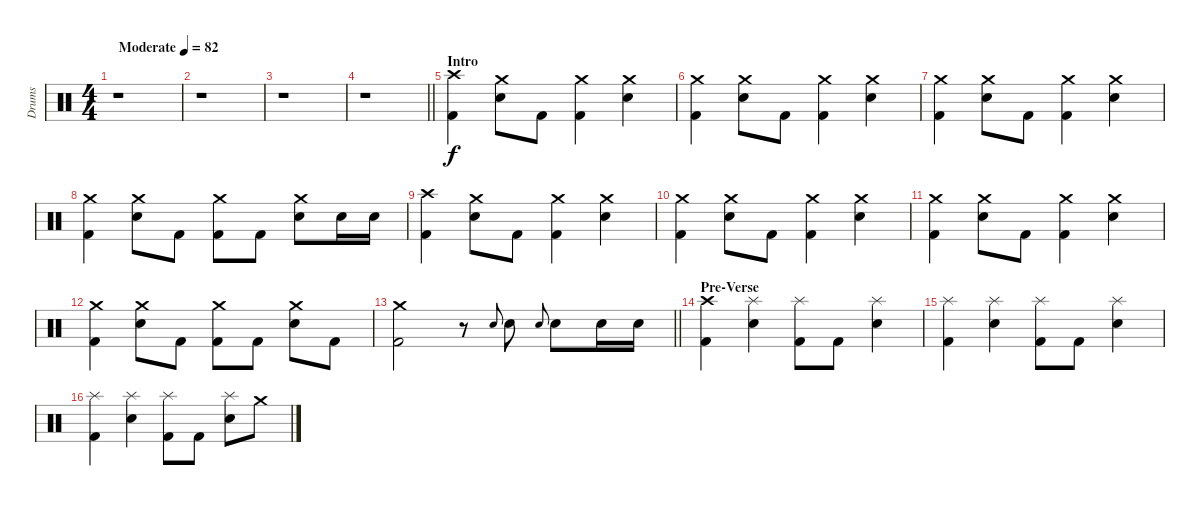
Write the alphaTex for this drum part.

\track ("Drums" "Drums") {instrument percussion}
\staff {score}
\articulation defaults
\ts (4 4)
\tempo (82 "Moderate")
\clef neutral
\ks c
r.1{dy f} |
r.1 |
r.1 |
\barLineRight lightlight
r.1 |
\section ("" "Intro")
("Crash high (hit)" "Kick (hit) 2").4 ("Crash medium (hit)" "Snare (hit) 2").8 "Kick (hit) 2".8 ("Crash medium (hit)" "Kick (hit) 2").4 ("Crash medium (hit)" "Snare (hit) 2").4 |
("Crash medium (hit)" "Kick (hit) 2").4 ("Crash medium (hit)" "Snare (hit) 2").8 "Kick (hit) 2".8 ("Crash medium (hit)" "Kick (hit) 2").4 ("Crash medium (hit)" "Snare (hit) 2").4 |
("Crash medium (hit)" "Kick (hit) 2").4 ("Crash medium (hit)" "Snare (hit) 2").8 "Kick (hit) 2".8 ("Crash medium (hit)" "Kick (hit) 2").4 ("Crash medium (hit)" "Snare (hit) 2").4 |
("Crash medium (hit)" "Kick (hit) 2").4 ("Crash medium (hit)" "Snare (hit) 2").8 "Kick (hit) 2".8 ("Crash medium (hit)" "Kick (hit) 2").8 "Kick (hit) 2".8 ("Crash medium (hit)" "Snare (hit) 2").8 "Snare (hit) 2".16 "Snare (hit) 2".16 |
("Crash high (hit)" "Kick (hit) 2").4 ("Crash medium (hit)" "Snare (hit) 2").8 "Kick (hit) 2".8 ("Crash medium (hit)" "Kick (hit) 2").4 ("Crash medium (hit)" "Snare (hit) 2").4 |
("Crash medium (hit)" "Kick (hit) 2").4 ("Crash medium (hit)" "Snare (hit) 2").8 "Kick (hit) 2".8 ("Crash medium (hit)" "Kick (hit) 2").4 ("Crash medium (hit)" "Snare (hit) 2").4 |
("Crash medium (hit)" "Kick (hit) 2").4 ("Crash medium (hit)" "Snare (hit) 2").8 "Kick (hit) 2".8 ("Crash medium (hit)" "Kick (hit) 2").4 ("Crash medium (hit)" "Snare (hit) 2").4 |
("Crash medium (hit)" "Kick (hit) 2").4 ("Crash medium (hit)" "Snare (hit) 2").8 "Kick (hit) 2".8 ("Crash medium (hit)" "Kick (hit) 2").8 "Kick (hit) 2".8 ("Crash medium (hit)" "Snare (hit) 2").8 "Kick (hit) 2".8 |
\barLineRight lightlight
("Crash medium (hit)" "Kick (hit) 2").2 r.8 "Snare (hit) 2".8{gr onbeat} "Snare (hit) 2".8 "Snare (hit) 2".8{gr onbeat} "Snare (hit) 2".8 "Snare (hit) 2".16 "Snare (hit) 2".16 |
\section ("" "Pre-Verse")
("Crash high (hit)" "Kick (hit) 2").4 ("Splash (hit)" "Snare (hit) 2").4 ("Splash (hit)" "Kick (hit) 2").8 "Kick (hit) 2".8 ("Splash (hit)" "Snare (hit) 2").4 |
("Splash (hit)" "Kick (hit) 2").4 ("Splash (hit)" "Snare (hit) 2").4 ("Splash (hit)" "Kick (hit) 2").8 "Kick (hit) 2".8 ("Splash (hit)" "Snare (hit) 2").4 |
("Splash (hit)" "Kick (hit) 2").4 ("Splash (hit)" "Snare (hit) 2").4 ("Splash (hit)" "Kick (hit) 2").8 "Kick (hit) 2".8 ("Splash (hit)" "Snare (hit) 2").8 "Crash medium (hit)".8
